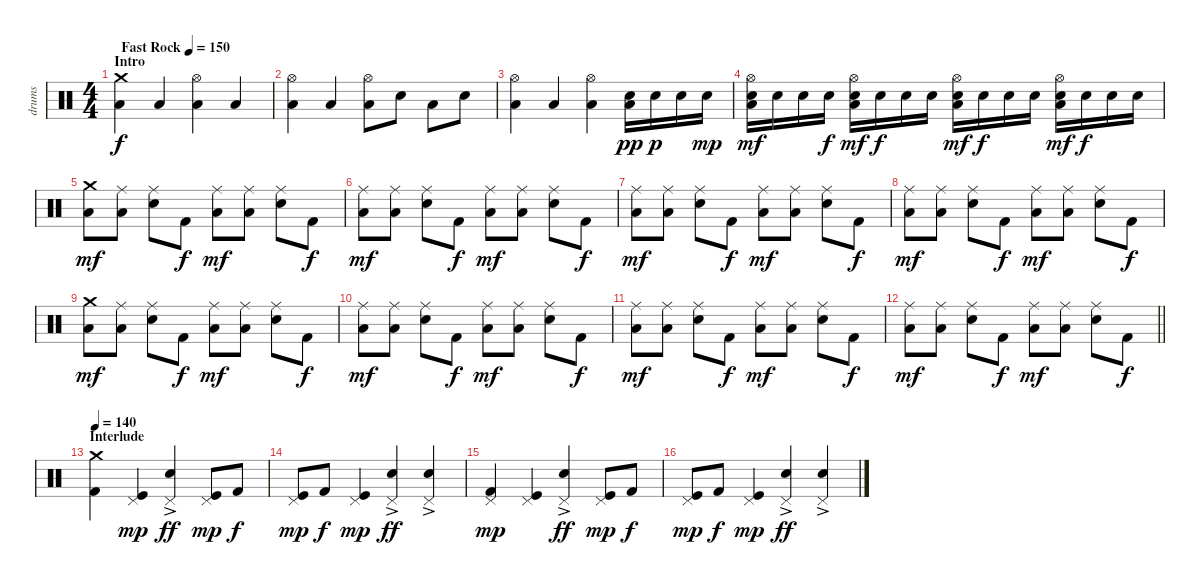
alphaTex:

\track ("drums" "drums") {instrument percussion}
\staff {score}
\articulation defaults
\ts (4 4)
\section ("" "Intro")
\tempo (150 "Fast Rock")
\clef neutral
\ks c
("Crash medium (hit)" "Low Floor Tom (hit)").4{dy f} "Low Floor Tom (hit)".4 ("Hi-Hat (open)" "Low Floor Tom (hit)").4 "Low Floor Tom (hit)".4 |
("Hi-Hat (open)" "Low Floor Tom (hit)").4 "Low Floor Tom (hit)".4 ("Hi-Hat (open)" "Low Floor Tom (hit)").8 "Snare (hit) 2".8 "Low Floor Tom (hit)".8 "Snare (hit) 2".8 |
("Hi-Hat (open)" "Low Floor Tom (hit)").4 "Low Floor Tom (hit)".4 ("Hi-Hat (open)" "Low Floor Tom (hit)").4 ("Electric Snare (hit)" "Low Floor Tom (hit)").16{dy pp} "Electric Snare (hit)".16{dy p} "Electric Snare (hit)".16 "Electric Snare (hit)".16{dy mp} |
("Hi-Hat (open)" "Electric Snare (hit)" "Low Floor Tom (hit)").16{dy mf} "Electric Snare (hit)".16 "Electric Snare (hit)".16 "Electric Snare (hit)".16{dy f} ("Hi-Hat (open)" "Electric Snare (hit)" "Low Floor Tom (hit)").16{dy mf} "Electric Snare (hit)".16{dy f} "Electric Snare (hit)".16 "Electric Snare (hit)".16 ("Hi-Hat (open)" "Electric Snare (hit)" "Low Floor Tom (hit)").16{dy mf} "Electric Snare (hit)".16{dy f} "Electric Snare (hit)".16 "Electric Snare (hit)".16 ("Hi-Hat (open)" "Electric Snare (hit)" "Low Floor Tom (hit)").16{dy mf} "Electric Snare (hit)".16{dy f} "Electric Snare (hit)".16 "Electric Snare (hit)".16 |
("Crash medium (hit)" "Low Tom (hit)").8{dy mf} ("Ride (middle)" "Low Tom (hit)").8 ("Ride (middle)" "Snare (hit) 2").8 "Kick (hit) 2".8{dy f} ("Ride (middle)" "Low Tom (hit)").8{dy mf} ("Ride (middle)" "Low Tom (hit)").8 ("Ride (middle)" "Snare (hit) 2").8 "Kick (hit) 2".8{dy f} |
("Ride (middle)" "Low Tom (hit)").8{dy mf} ("Ride (middle)" "Low Tom (hit)").8 ("Ride (middle)" "Snare (hit) 2").8 "Kick (hit) 2".8{dy f} ("Ride (middle)" "Low Tom (hit)").8{dy mf} ("Ride (middle)" "Low Tom (hit)").8 ("Ride (middle)" "Snare (hit) 2").8 "Kick (hit) 2".8{dy f} |
("Ride (middle)" "Low Tom (hit)").8{dy mf} ("Ride (middle)" "Low Tom (hit)").8 ("Ride (middle)" "Snare (hit) 2").8 "Kick (hit) 2".8{dy f} ("Ride (middle)" "Low Tom (hit)").8{dy mf} ("Ride (middle)" "Low Tom (hit)").8 ("Ride (middle)" "Snare (hit) 2").8 "Kick (hit) 2".8{dy f} |
("Ride (middle)" "Low Tom (hit)").8{dy mf} ("Ride (middle)" "Low Tom (hit)").8 ("Ride (middle)" "Snare (hit) 2").8 "Kick (hit) 2".8{dy f} ("Ride (middle)" "Low Tom (hit)").8{dy mf} ("Ride (middle)" "Low Tom (hit)").8 ("Ride (middle)" "Snare (hit) 2").8 "Kick (hit) 2".8{dy f} |
("Crash medium (hit)" "Low Tom (hit)").8{dy mf} ("Ride (middle)" "Low Tom (hit)").8 ("Ride (middle)" "Snare (hit) 2").8 "Kick (hit) 2".8{dy f} ("Ride (middle)" "Low Tom (hit)").8{dy mf} ("Ride (middle)" "Low Tom (hit)").8 ("Ride (middle)" "Snare (hit) 2").8 "Kick (hit) 2".8{dy f} |
("Ride (middle)" "Low Tom (hit)").8{dy mf} ("Ride (middle)" "Low Tom (hit)").8 ("Ride (middle)" "Snare (hit) 2").8 "Kick (hit) 2".8{dy f} ("Ride (middle)" "Low Tom (hit)").8{dy mf} ("Ride (middle)" "Low Tom (hit)").8 ("Ride (middle)" "Snare (hit) 2").8 "Kick (hit) 2".8{dy f} |
("Ride (middle)" "Low Tom (hit)").8{dy mf} ("Ride (middle)" "Low Tom (hit)").8 ("Ride (middle)" "Snare (hit) 2").8 "Kick (hit) 2".8{dy f} ("Ride (middle)" "Low Tom (hit)").8{dy mf} ("Ride (middle)" "Low Tom (hit)").8 ("Ride (middle)" "Snare (hit) 2").8 "Kick (hit) 2".8{dy f} |
\barLineRight lightlight
("Ride (middle)" "Low Tom (hit)").8{dy mf} ("Ride (middle)" "Low Tom (hit)").8 ("Ride (middle)" "Snare (hit) 2").8 "Kick (hit) 2".8{dy f} ("Ride (middle)" "Low Tom (hit)").8{dy mf} ("Ride (middle)" "Low Tom (hit)").8 ("Ride (middle)" "Snare (hit) 2").8 "Kick (hit) 2".8{dy f} |
\section ("" "Interlude")
\tempo 140
("Crash medium (hit)" "Kick (hit) 2").4 ("Pedal Hi-Hat (hit)" "Kick (hit)").4{dy mp} ("Pedal Hi-Hat (hit)" "Snare (hit) 2"{ac}).4{dy ff} ("Pedal Hi-Hat (hit)" "Kick (hit)").8{dy mp} "Kick (hit) 2".8{dy f} |
("Pedal Hi-Hat (hit)" "Kick (hit)").8{dy mp} "Kick (hit) 2".8{dy f} ("Pedal Hi-Hat (hit)" "Kick (hit)").4{dy mp} ("Pedal Hi-Hat (hit)" "Snare (hit) 2"{ac}).4{dy ff} ("Pedal Hi-Hat (hit)" "Snare (hit) 2"{ac}).4 |
("Pedal Hi-Hat (hit)" "Kick (hit) 2").4{dy mp} ("Pedal Hi-Hat (hit)" "Kick (hit)").4 ("Pedal Hi-Hat (hit)" "Snare (hit) 2"{ac}).4{dy ff} ("Pedal Hi-Hat (hit)" "Kick (hit)").8{dy mp} "Kick (hit) 2".8{dy f} |
("Pedal Hi-Hat (hit)" "Kick (hit)").8{dy mp} "Kick (hit) 2".8{dy f} ("Pedal Hi-Hat (hit)" "Kick (hit)").4{dy mp} ("Pedal Hi-Hat (hit)" "Snare (hit) 2"{ac}).4{dy ff} ("Pedal Hi-Hat (hit)" "Snare (hit) 2"{ac}).4
